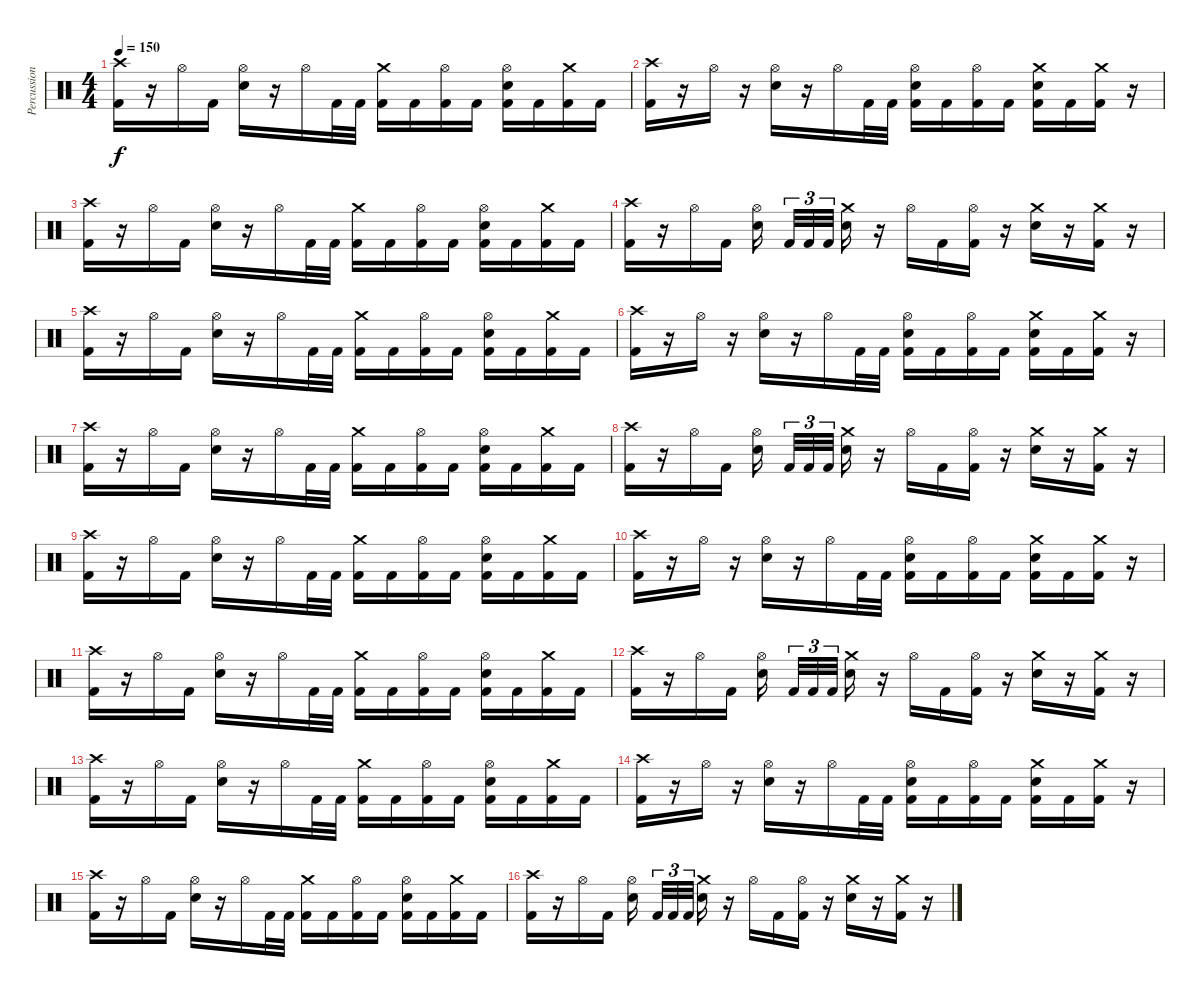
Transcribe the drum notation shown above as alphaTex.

\track ("Percussions" "Percussion") {instrument percussion}
\staff {score}
\articulation defaults
\ts (4 4)
\tempo 150
\clef neutral
\ks c
("Crash high (hit)" "Kick (hit) 2").16{dy f} r.16 "Hi-Hat (open)".16 "Kick (hit) 2".16 ("Hi-Hat (open)" "Snare (hit) 2").16 r.16 "Hi-Hat (open)".16 "Kick (hit) 2".32 "Kick (hit) 2".32 ("Crash medium (hit)" "Kick (hit) 2").16 "Kick (hit) 2".16 ("Hi-Hat (open)" "Kick (hit) 2").16 "Kick (hit) 2".16 ("Hi-Hat (open)" "Snare (hit) 2" "Kick (hit) 2").16 "Kick (hit) 2".16 ("Crash medium (hit)" "Kick (hit) 2").16 "Kick (hit) 2".16 |
("Crash high (hit)" "Kick (hit) 2").16 r.16 "Hi-Hat (open)".16 r.16 ("Hi-Hat (open)" "Snare (hit) 2").16 r.16 "Hi-Hat (open)".16 "Kick (hit) 2".32 "Kick (hit) 2".32 ("Hi-Hat (open)" "Snare (hit) 2" "Kick (hit) 2").16 "Kick (hit) 2".16 ("Hi-Hat (open)" "Kick (hit) 2").16 "Kick (hit) 2".16 ("Crash medium (hit)" "Snare (hit) 2" "Kick (hit) 2").16 "Kick (hit) 2".16 ("Crash medium (hit)" "Kick (hit) 2").16 r.16 |
("Crash high (hit)" "Kick (hit) 2").16 r.16 "Hi-Hat (open)".16 "Kick (hit) 2".16 ("Hi-Hat (open)" "Snare (hit) 2").16 r.16 "Hi-Hat (open)".16 "Kick (hit) 2".32 "Kick (hit) 2".32 ("Crash medium (hit)" "Kick (hit) 2").16 "Kick (hit) 2".16 ("Hi-Hat (open)" "Kick (hit) 2").16 "Kick (hit) 2".16 ("Hi-Hat (open)" "Snare (hit) 2" "Kick (hit) 2").16 "Kick (hit) 2".16 ("Crash medium (hit)" "Kick (hit) 2").16 "Kick (hit) 2".16 |
("Crash high (hit)" "Kick (hit) 2").16 r.16 "Hi-Hat (open)".16 "Kick (hit) 2".16 ("Hi-Hat (open)" "Snare (hit) 2").16 "Kick (hit) 2".32{tu (3 2)} "Kick (hit) 2".32{tu (3 2)} "Kick (hit) 2".32{tu (3 2)} ("Crash medium (hit)" "Snare (hit) 2").16 r.16 "Hi-Hat (open)".16 "Kick (hit) 2".16 ("Hi-Hat (open)" "Kick (hit) 2").16 r.16 ("Crash medium (hit)" "Snare (hit) 2").16 r.16 ("Crash medium (hit)" "Kick (hit) 2").16 r.16 |
("Crash high (hit)" "Kick (hit) 2").16 r.16 "Hi-Hat (open)".16 "Kick (hit) 2".16 ("Hi-Hat (open)" "Snare (hit) 2").16 r.16 "Hi-Hat (open)".16 "Kick (hit) 2".32 "Kick (hit) 2".32 ("Crash medium (hit)" "Kick (hit) 2").16 "Kick (hit) 2".16 ("Hi-Hat (open)" "Kick (hit) 2").16 "Kick (hit) 2".16 ("Hi-Hat (open)" "Snare (hit) 2" "Kick (hit) 2").16 "Kick (hit) 2".16 ("Crash medium (hit)" "Kick (hit) 2").16 "Kick (hit) 2".16 |
("Crash high (hit)" "Kick (hit) 2").16 r.16 "Hi-Hat (open)".16 r.16 ("Hi-Hat (open)" "Snare (hit) 2").16 r.16 "Hi-Hat (open)".16 "Kick (hit) 2".32 "Kick (hit) 2".32 ("Hi-Hat (open)" "Snare (hit) 2" "Kick (hit) 2").16 "Kick (hit) 2".16 ("Hi-Hat (open)" "Kick (hit) 2").16 "Kick (hit) 2".16 ("Crash medium (hit)" "Snare (hit) 2" "Kick (hit) 2").16 "Kick (hit) 2".16 ("Crash medium (hit)" "Kick (hit) 2").16 r.16 |
("Crash high (hit)" "Kick (hit) 2").16 r.16 "Hi-Hat (open)".16 "Kick (hit) 2".16 ("Hi-Hat (open)" "Snare (hit) 2").16 r.16 "Hi-Hat (open)".16 "Kick (hit) 2".32 "Kick (hit) 2".32 ("Crash medium (hit)" "Kick (hit) 2").16 "Kick (hit) 2".16 ("Hi-Hat (open)" "Kick (hit) 2").16 "Kick (hit) 2".16 ("Hi-Hat (open)" "Snare (hit) 2" "Kick (hit) 2").16 "Kick (hit) 2".16 ("Crash medium (hit)" "Kick (hit) 2").16 "Kick (hit) 2".16 |
("Crash high (hit)" "Kick (hit) 2").16 r.16 "Hi-Hat (open)".16 "Kick (hit) 2".16 ("Hi-Hat (open)" "Snare (hit) 2").16 "Kick (hit) 2".32{tu (3 2)} "Kick (hit) 2".32{tu (3 2)} "Kick (hit) 2".32{tu (3 2)} ("Crash medium (hit)" "Snare (hit) 2").16 r.16 "Hi-Hat (open)".16 "Kick (hit) 2".16 ("Hi-Hat (open)" "Kick (hit) 2").16 r.16 ("Crash medium (hit)" "Snare (hit) 2").16 r.16 ("Crash medium (hit)" "Kick (hit) 2").16 r.16 |
("Crash high (hit)" "Kick (hit) 2").16 r.16 "Hi-Hat (open)".16 "Kick (hit) 2".16 ("Hi-Hat (open)" "Snare (hit) 2").16 r.16 "Hi-Hat (open)".16 "Kick (hit) 2".32 "Kick (hit) 2".32 ("Crash medium (hit)" "Kick (hit) 2").16 "Kick (hit) 2".16 ("Hi-Hat (open)" "Kick (hit) 2").16 "Kick (hit) 2".16 ("Hi-Hat (open)" "Snare (hit) 2" "Kick (hit) 2").16 "Kick (hit) 2".16 ("Crash medium (hit)" "Kick (hit) 2").16 "Kick (hit) 2".16 |
("Crash high (hit)" "Kick (hit) 2").16 r.16 "Hi-Hat (open)".16 r.16 ("Hi-Hat (open)" "Snare (hit) 2").16 r.16 "Hi-Hat (open)".16 "Kick (hit) 2".32 "Kick (hit) 2".32 ("Hi-Hat (open)" "Snare (hit) 2" "Kick (hit) 2").16 "Kick (hit) 2".16 ("Hi-Hat (open)" "Kick (hit) 2").16 "Kick (hit) 2".16 ("Crash medium (hit)" "Snare (hit) 2" "Kick (hit) 2").16 "Kick (hit) 2".16 ("Crash medium (hit)" "Kick (hit) 2").16 r.16 |
("Crash high (hit)" "Kick (hit) 2").16 r.16 "Hi-Hat (open)".16 "Kick (hit) 2".16 ("Hi-Hat (open)" "Snare (hit) 2").16 r.16 "Hi-Hat (open)".16 "Kick (hit) 2".32 "Kick (hit) 2".32 ("Crash medium (hit)" "Kick (hit) 2").16 "Kick (hit) 2".16 ("Hi-Hat (open)" "Kick (hit) 2").16 "Kick (hit) 2".16 ("Hi-Hat (open)" "Snare (hit) 2" "Kick (hit) 2").16 "Kick (hit) 2".16 ("Crash medium (hit)" "Kick (hit) 2").16 "Kick (hit) 2".16 |
("Crash high (hit)" "Kick (hit) 2").16 r.16 "Hi-Hat (open)".16 "Kick (hit) 2".16 ("Hi-Hat (open)" "Snare (hit) 2").16 "Kick (hit) 2".32{tu (3 2)} "Kick (hit) 2".32{tu (3 2)} "Kick (hit) 2".32{tu (3 2)} ("Crash medium (hit)" "Snare (hit) 2").16 r.16 "Hi-Hat (open)".16 "Kick (hit) 2".16 ("Hi-Hat (open)" "Kick (hit) 2").16 r.16 ("Crash medium (hit)" "Snare (hit) 2").16 r.16 ("Crash medium (hit)" "Kick (hit) 2").16 r.16 |
("Crash high (hit)" "Kick (hit) 2").16 r.16 "Hi-Hat (open)".16 "Kick (hit) 2".16 ("Hi-Hat (open)" "Snare (hit) 2").16 r.16 "Hi-Hat (open)".16 "Kick (hit) 2".32 "Kick (hit) 2".32 ("Crash medium (hit)" "Kick (hit) 2").16 "Kick (hit) 2".16 ("Hi-Hat (open)" "Kick (hit) 2").16 "Kick (hit) 2".16 ("Hi-Hat (open)" "Snare (hit) 2" "Kick (hit) 2").16 "Kick (hit) 2".16 ("Crash medium (hit)" "Kick (hit) 2").16 "Kick (hit) 2".16 |
("Crash high (hit)" "Kick (hit) 2").16 r.16 "Hi-Hat (open)".16 r.16 ("Hi-Hat (open)" "Snare (hit) 2").16 r.16 "Hi-Hat (open)".16 "Kick (hit) 2".32 "Kick (hit) 2".32 ("Hi-Hat (open)" "Snare (hit) 2" "Kick (hit) 2").16 "Kick (hit) 2".16 ("Hi-Hat (open)" "Kick (hit) 2").16 "Kick (hit) 2".16 ("Crash medium (hit)" "Snare (hit) 2" "Kick (hit) 2").16 "Kick (hit) 2".16 ("Crash medium (hit)" "Kick (hit) 2").16 r.16 |
("Crash high (hit)" "Kick (hit) 2").16 r.16 "Hi-Hat (open)".16 "Kick (hit) 2".16 ("Hi-Hat (open)" "Snare (hit) 2").16 r.16 "Hi-Hat (open)".16 "Kick (hit) 2".32 "Kick (hit) 2".32 ("Crash medium (hit)" "Kick (hit) 2").16 "Kick (hit) 2".16 ("Hi-Hat (open)" "Kick (hit) 2").16 "Kick (hit) 2".16 ("Hi-Hat (open)" "Snare (hit) 2" "Kick (hit) 2").16 "Kick (hit) 2".16 ("Crash medium (hit)" "Kick (hit) 2").16 "Kick (hit) 2".16 |
("Crash high (hit)" "Kick (hit) 2").16 r.16 "Hi-Hat (open)".16 "Kick (hit) 2".16 ("Hi-Hat (open)" "Snare (hit) 2").16 "Kick (hit) 2".32{tu (3 2)} "Kick (hit) 2".32{tu (3 2)} "Kick (hit) 2".32{tu (3 2)} ("Crash medium (hit)" "Snare (hit) 2").16 r.16 "Hi-Hat (open)".16 "Kick (hit) 2".16 ("Hi-Hat (open)" "Kick (hit) 2").16 r.16 ("Crash medium (hit)" "Snare (hit) 2").16 r.16 ("Crash medium (hit)" "Kick (hit) 2").16 r.16
